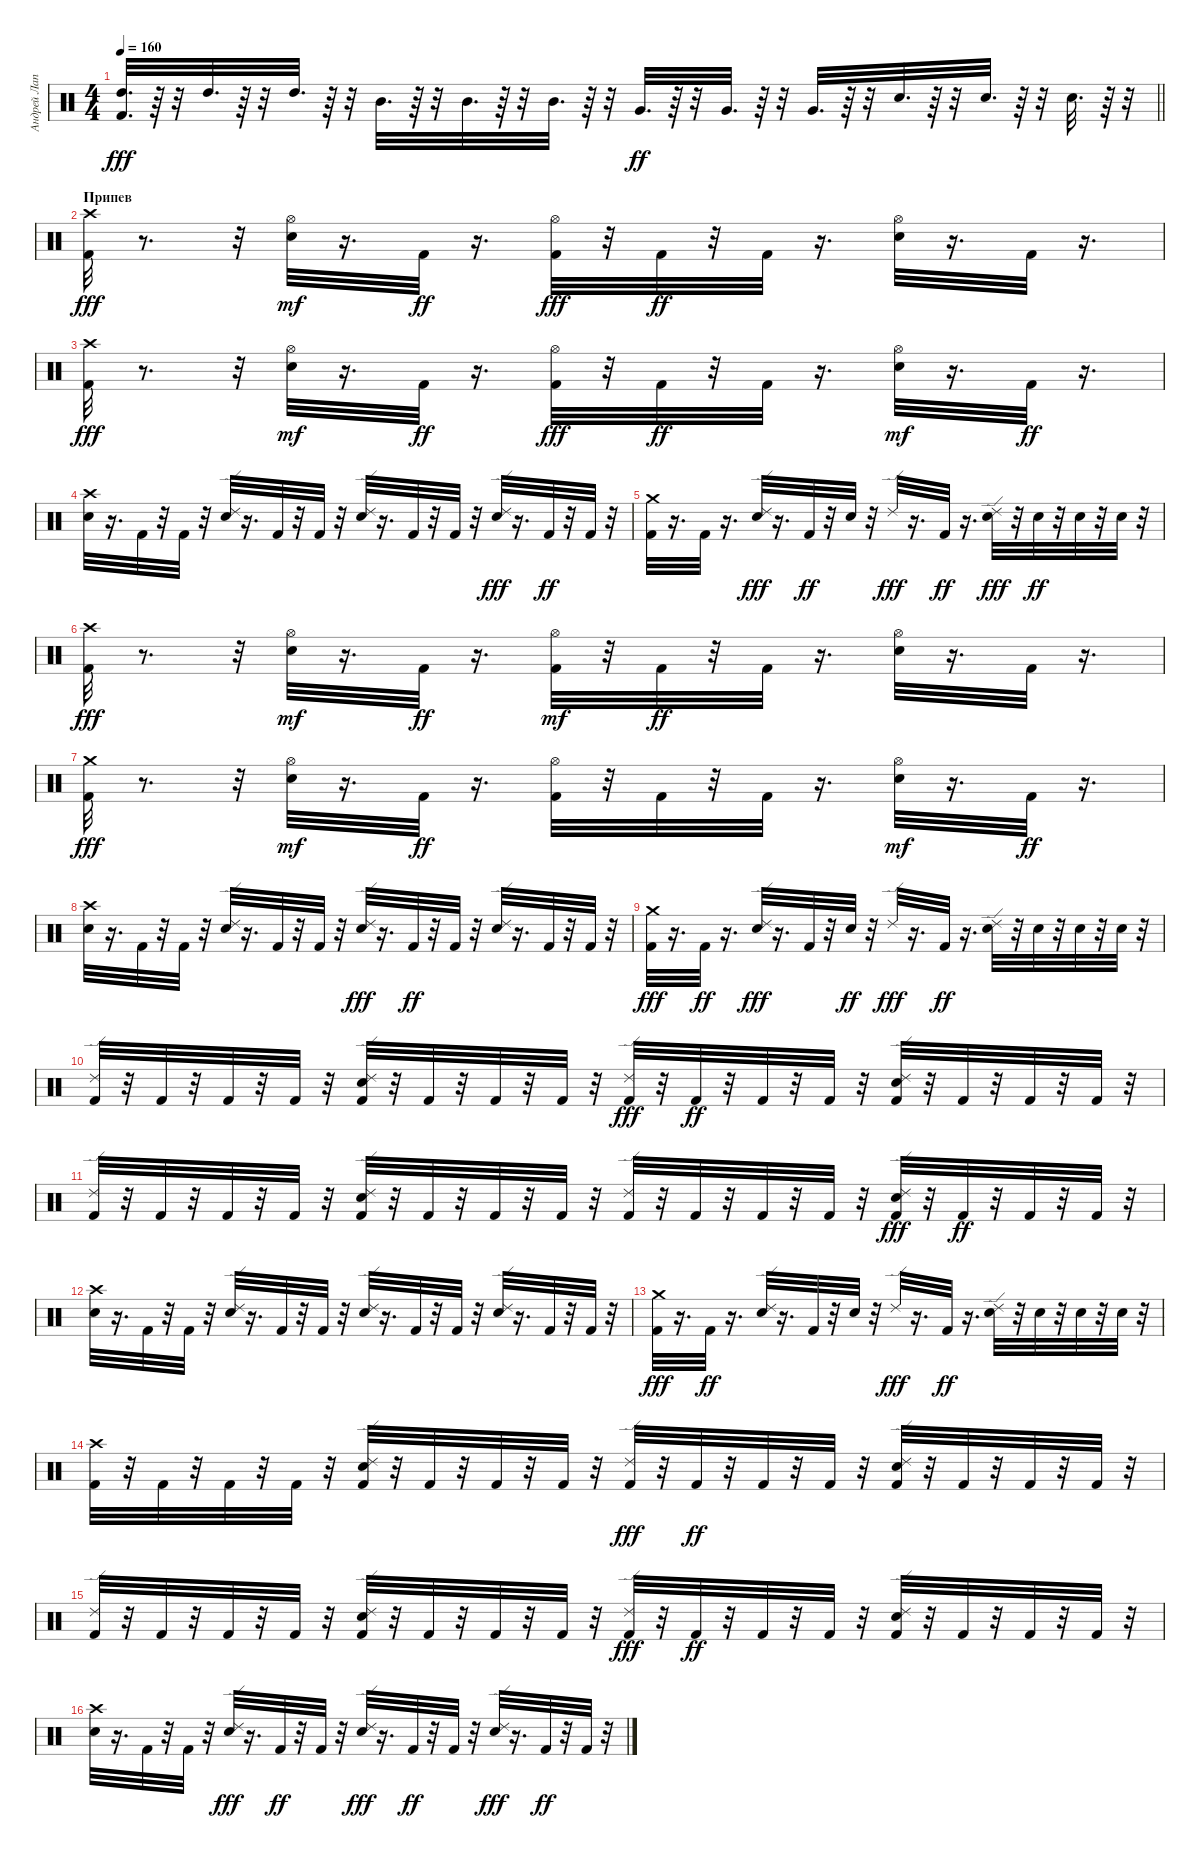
\track ("Андрей Лаптев" "Андрей Лап") {instrument percussion}
\staff {score}
\articulation defaults
\ts (4 4)
\tempo 160
\clef neutral
\barLineRight lightlight
\ks c
("High Tom (hit)" "Kick (hit) 2").32{d dy fff} r.64 r.32 "High Tom (hit)".32{d} r.64 r.32 "High Tom (hit)".32{d} r.64 r.32 "Mid Tom (hit)".32{d} r.64 r.32 "Mid Tom (hit)".32{d} r.64 r.32 "Mid Tom (hit)".32{d} r.64 r.32 "Very Low Tom (hit)".32{d dy ff} r.64 r.32 "Very Low Tom (hit)".32{d} r.64 r.32 "Very Low Tom (hit)".32{d} r.64 r.32 "Electric Snare (hit)".32{d} r.64 r.32 "Electric Snare (hit)".32{d} r.64 r.32 "Electric Snare (hit)".32{d} r.64 r.32 |
\section ("" "Припев")
("Crash high (hit)" "Kick (hit) 2").32{dy fff} r.8{d} r.32 ("Electric Snare (hit)" "Hi-Hat (open)").32{dy mf} r.16{d} "Kick (hit) 2".32{dy ff} r.16{d} ("Hi-Hat (open)" "Kick (hit) 2").32{dy fff} r.32 "Kick (hit) 2".32{dy ff} r.32 "Kick (hit) 2".32 r.16{d} ("Hi-Hat (open)" "Electric Snare (hit)").32 r.16{d} "Kick (hit) 2".32 r.16{d} |
("Crash high (hit)" "Kick (hit) 2").32{dy fff} r.8{d} r.32 ("Electric Snare (hit)" "Hi-Hat (open)").32{dy mf} r.16{d} "Kick (hit) 2".32{dy ff} r.16{d} ("Hi-Hat (open)" "Kick (hit) 2").32{dy fff} r.32 "Kick (hit) 2".32{dy ff} r.32 "Kick (hit) 2".32 r.16{d} ("Electric Snare (hit)" "Hi-Hat (open)").32{dy mf} r.16{d} "Kick (hit) 2".32{dy ff} r.16{d} |
("Electric Snare (hit)" "Crash high (hit)").32 r.16{d} "Kick (hit) 2".32 r.32 "Kick (hit) 2".32 r.32 ("Ride (edge) 2" "Electric Snare (hit)").32 r.16{d} "Kick (hit) 2".32 r.32 "Kick (hit) 2".32 r.32 ("Ride (edge) 2" "Electric Snare (hit)").32 r.16{d} "Kick (hit) 2".32 r.32 "Kick (hit) 2".32 r.32 ("Electric Snare (hit)" "Ride (edge) 2").32{dy fff} r.16{d} "Kick (hit) 2".32{dy ff} r.32 "Kick (hit) 2".32 r.32 |
("Kick (hit) 2" "Crash medium (hit)").32 r.16{d} "Kick (hit) 2".32 r.16{d} ("Electric Snare (hit)" "Ride (edge) 2").32{dy fff} r.16{d} "Kick (hit) 2".32{dy ff} r.32 "Electric Snare (hit)".32 r.32 "Ride (edge) 2".32{dy fff} r.16{d} "Kick (hit) 2".32{dy ff} r.16{d} ("Electric Snare (hit)" "Ride (edge) 2").32{dy fff} r.32 "Electric Snare (hit)".32{dy ff} r.32 "Electric Snare (hit)".32 r.32 "Electric Snare (hit)".32 r.32 |
("Kick (hit) 2" "Crash high (hit)").32{dy fff} r.8{d} r.32 ("Electric Snare (hit)" "Hi-Hat (open)").32{dy mf} r.16{d} "Kick (hit) 2".32{dy ff} r.16{d} ("Kick (hit) 2" "Hi-Hat (open)").32{dy mf} r.32 "Kick (hit) 2".32{dy ff} r.32 "Kick (hit) 2".32 r.16{d} ("Hi-Hat (open)" "Electric Snare (hit)").32 r.16{d} "Kick (hit) 2".32 r.16{d} |
("Crash medium (hit)" "Kick (hit) 2").32{dy fff} r.8{d} r.32 ("Electric Snare (hit)" "Hi-Hat (open)").32{dy mf} r.16{d} "Kick (hit) 2".32{dy ff} r.16{d} ("Hi-Hat (open)" "Kick (hit) 2").32 r.32 "Kick (hit) 2".32 r.32 "Kick (hit) 2".32 r.16{d} ("Electric Snare (hit)" "Hi-Hat (open)").32{dy mf} r.16{d} "Kick (hit) 2".32{dy ff} r.16{d} |
("Electric Snare (hit)" "Crash high (hit)").32 r.16{d} "Kick (hit) 2".32 r.32 "Kick (hit) 2".32 r.32 ("Ride (edge) 2" "Electric Snare (hit)").32 r.16{d} "Kick (hit) 2".32 r.32 "Kick (hit) 2".32 r.32 ("Electric Snare (hit)" "Ride (edge) 2").32{dy fff} r.16{d} "Kick (hit) 2".32{dy ff} r.32 "Kick (hit) 2".32 r.32 ("Ride (edge) 2" "Electric Snare (hit)").32 r.16{d} "Kick (hit) 2".32 r.32 "Kick (hit) 2".32 r.32 |
("Crash medium (hit)" "Kick (hit) 2").32{dy fff} r.16{d} "Kick (hit) 2".32{dy ff} r.16{d} ("Electric Snare (hit)" "Ride (edge) 2").32{dy fff} r.16{d} "Kick (hit) 2".32 r.32 "Electric Snare (hit)".32{dy ff} r.32 "Ride (edge) 2".32{dy fff} r.16{d} "Kick (hit) 2".32{dy ff} r.16{d} ("Ride (edge) 2" "Electric Snare (hit)").32 r.32 "Electric Snare (hit)".32 r.32 "Electric Snare (hit)".32 r.32 "Electric Snare (hit)".32 r.32 |
("Ride (edge) 2" "Kick (hit) 2").32 r.32 "Kick (hit) 2".32 r.32 "Kick (hit) 2".32 r.32 "Kick (hit) 2".32 r.32 ("Electric Snare (hit)" "Ride (edge) 2" "Kick (hit) 2").32 r.32 "Kick (hit) 2".32 r.32 "Kick (hit) 2".32 r.32 "Kick (hit) 2".32 r.32 ("Kick (hit) 2" "Ride (edge) 2").32{dy fff} r.32 "Kick (hit) 2".32{dy ff} r.32 "Kick (hit) 2".32 r.32 "Kick (hit) 2".32 r.32 ("Ride (edge) 2" "Kick (hit) 2" "Electric Snare (hit)").32 r.32 "Kick (hit) 2".32 r.32 "Kick (hit) 2".32 r.32 "Kick (hit) 2".32 r.32 |
("Ride (edge) 2" "Kick (hit) 2").32 r.32 "Kick (hit) 2".32 r.32 "Kick (hit) 2".32 r.32 "Kick (hit) 2".32 r.32 ("Ride (edge) 2" "Electric Snare (hit)" "Kick (hit) 2").32 r.32 "Kick (hit) 2".32 r.32 "Kick (hit) 2".32 r.32 "Kick (hit) 2".32 r.32 ("Ride (edge) 2" "Kick (hit) 2").32 r.32 "Kick (hit) 2".32 r.32 "Kick (hit) 2".32 r.32 "Kick (hit) 2".32 r.32 ("Kick (hit) 2" "Electric Snare (hit)" "Ride (edge) 2").32{dy fff} r.32 "Kick (hit) 2".32{dy ff} r.32 "Kick (hit) 2".32 r.32 "Kick (hit) 2".32 r.32 |
("Electric Snare (hit)" "Crash high (hit)").32 r.16{d} "Kick (hit) 2".32 r.32 "Kick (hit) 2".32 r.32 ("Ride (edge) 2" "Electric Snare (hit)").32 r.16{d} "Kick (hit) 2".32 r.32 "Kick (hit) 2".32 r.32 ("Ride (edge) 2" "Electric Snare (hit)").32 r.16{d} "Kick (hit) 2".32 r.32 "Kick (hit) 2".32 r.32 ("Ride (edge) 2" "Electric Snare (hit)").32 r.16{d} "Kick (hit) 2".32 r.32 "Kick (hit) 2".32 r.32 |
("Crash medium (hit)" "Kick (hit) 2").32{dy fff} r.16{d} "Kick (hit) 2".32{dy ff} r.16{d} ("Ride (edge) 2" "Electric Snare (hit)").32 r.16{d} "Kick (hit) 2".32 r.32 "Electric Snare (hit)".32 r.32 "Ride (edge) 2".32{dy fff} r.16{d} "Kick (hit) 2".32{dy ff} r.16{d} ("Ride (edge) 2" "Electric Snare (hit)").32 r.32 "Electric Snare (hit)".32 r.32 "Electric Snare (hit)".32 r.32 "Electric Snare (hit)".32 r.32 |
("Crash high (hit)" "Kick (hit) 2").32 r.32 "Kick (hit) 2".32 r.32 "Kick (hit) 2".32 r.32 "Kick (hit) 2".32 r.32 ("Kick (hit) 2" "Ride (edge) 2" "Electric Snare (hit)").32 r.32 "Kick (hit) 2".32 r.32 "Kick (hit) 2".32 r.32 "Kick (hit) 2".32 r.32 ("Kick (hit) 2" "Ride (edge) 2").32{dy fff} r.32 "Kick (hit) 2".32{dy ff} r.32 "Kick (hit) 2".32 r.32 "Kick (hit) 2".32 r.32 ("Electric Snare (hit)" "Ride (edge) 2" "Kick (hit) 2").32 r.32 "Kick (hit) 2".32 r.32 "Kick (hit) 2".32 r.32 "Kick (hit) 2".32 r.32 |
("Ride (edge) 2" "Kick (hit) 2").32 r.32 "Kick (hit) 2".32 r.32 "Kick (hit) 2".32 r.32 "Kick (hit) 2".32 r.32 ("Kick (hit) 2" "Ride (edge) 2" "Electric Snare (hit)").32 r.32 "Kick (hit) 2".32 r.32 "Kick (hit) 2".32 r.32 "Kick (hit) 2".32 r.32 ("Kick (hit) 2" "Ride (edge) 2").32{dy fff} r.32 "Kick (hit) 2".32{dy ff} r.32 "Kick (hit) 2".32 r.32 "Kick (hit) 2".32 r.32 ("Kick (hit) 2" "Ride (edge) 2" "Electric Snare (hit)").32 r.32 "Kick (hit) 2".32 r.32 "Kick (hit) 2".32 r.32 "Kick (hit) 2".32 r.32 |
("Crash high (hit)" "Electric Snare (hit)").32 r.16{d} "Kick (hit) 2".32 r.32 "Kick (hit) 2".32 r.32 ("Electric Snare (hit)" "Ride (edge) 2").32{dy fff} r.16{d} "Kick (hit) 2".32{dy ff} r.32 "Kick (hit) 2".32 r.32 ("Electric Snare (hit)" "Ride (edge) 2").32{dy fff} r.16{d} "Kick (hit) 2".32{dy ff} r.32 "Kick (hit) 2".32 r.32 ("Electric Snare (hit)" "Ride (edge) 2").32{dy fff} r.16{d} "Kick (hit) 2".32{dy ff} r.32 "Kick (hit) 2".32 r.32
